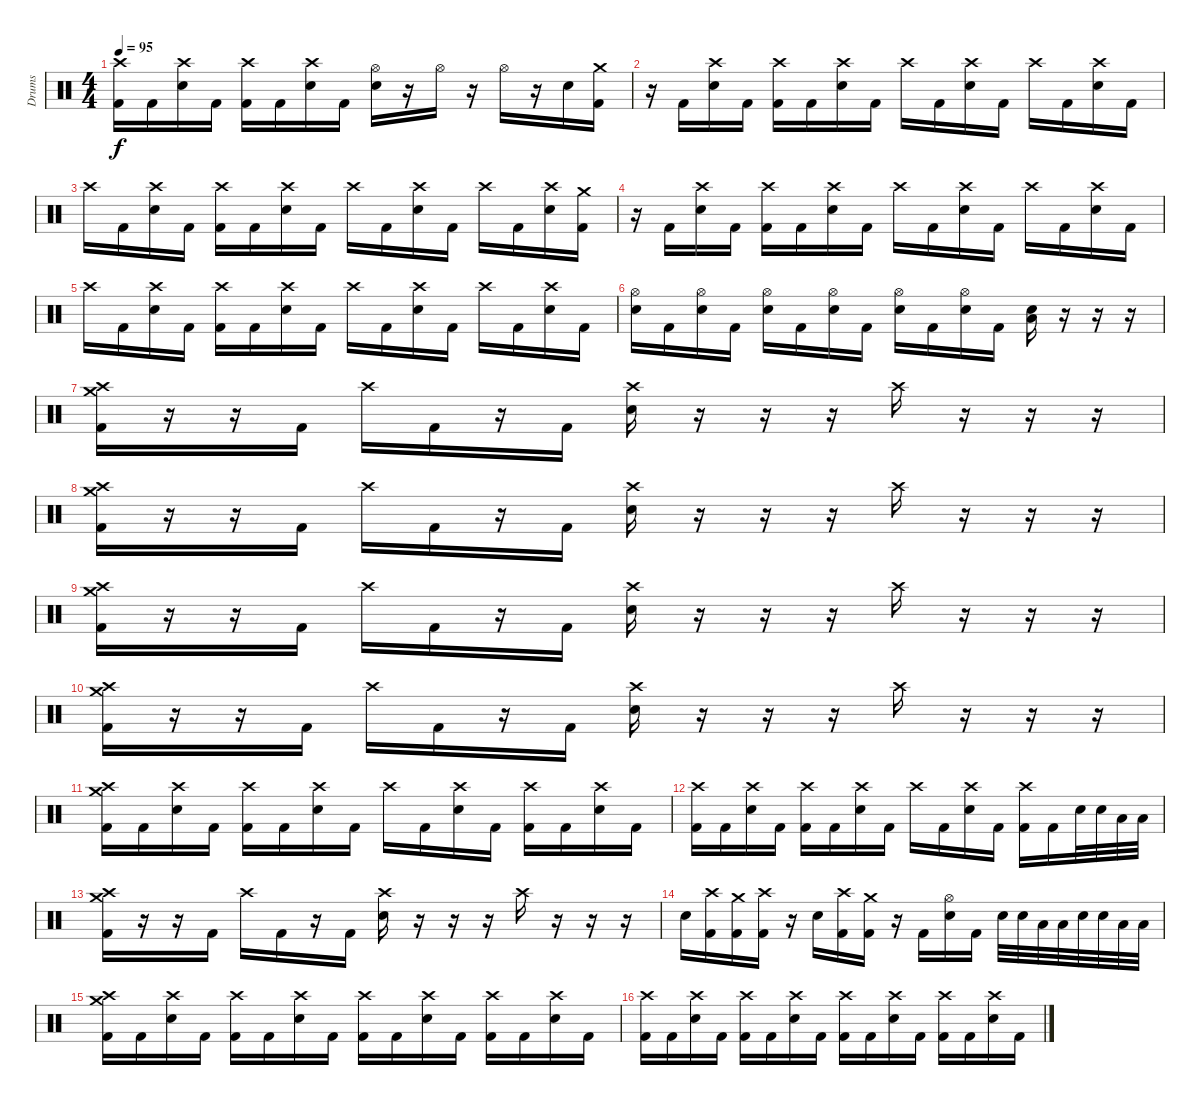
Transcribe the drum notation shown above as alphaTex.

\track ("Drums" "Drums") {instrument percussion}
\staff {score}
\articulation defaults
\ts (4 4)
\tempo 95
\clef neutral
\ks c
("Crash high (hit)" "Kick (hit) 2").16{dy f} "Kick (hit) 2".16 ("Crash high (hit)" "Electric Snare (hit)").16 "Kick (hit) 2".16 ("Crash high (hit)" "Kick (hit) 2").16 "Kick (hit) 2".16 ("Crash high (hit)" "Electric Snare (hit)").16 "Kick (hit) 2".16 ("Hi-Hat (open)" "Electric Snare (hit)").16 r.16 "Hi-Hat (open)".16 r.16 "Hi-Hat (open)".16 r.16 "Electric Snare (hit)".16 ("Crash medium (hit)" "Kick (hit) 2").16 |
r.16 "Kick (hit) 2".16 ("Crash high (hit)" "Electric Snare (hit)").16 "Kick (hit) 2".16 ("Crash high (hit)" "Kick (hit) 2").16 "Kick (hit) 2".16 ("Crash high (hit)" "Electric Snare (hit)").16 "Kick (hit) 2".16 "Crash high (hit)".16 "Kick (hit) 2".16 ("Crash high (hit)" "Electric Snare (hit)").16 "Kick (hit) 2".16 "Crash high (hit)".16 "Kick (hit) 2".16 ("Crash high (hit)" "Electric Snare (hit)").16 "Kick (hit) 2".16 |
"Crash high (hit)".16 "Kick (hit) 2".16 ("Crash high (hit)" "Electric Snare (hit)").16 "Kick (hit) 2".16 ("Crash high (hit)" "Kick (hit) 2").16 "Kick (hit) 2".16 ("Crash high (hit)" "Electric Snare (hit)").16 "Kick (hit) 2".16 "Crash high (hit)".16 "Kick (hit) 2".16 ("Crash high (hit)" "Electric Snare (hit)").16 "Kick (hit) 2".16 "Crash high (hit)".16 "Kick (hit) 2".16 ("Crash high (hit)" "Electric Snare (hit)").16 ("Crash medium (hit)" "Kick (hit) 2").16 |
r.16 "Kick (hit) 2".16 ("Crash high (hit)" "Electric Snare (hit)").16 "Kick (hit) 2".16 ("Crash high (hit)" "Kick (hit) 2").16 "Kick (hit) 2".16 ("Crash high (hit)" "Electric Snare (hit)").16 "Kick (hit) 2".16 "Crash high (hit)".16 "Kick (hit) 2".16 ("Crash high (hit)" "Electric Snare (hit)").16 "Kick (hit) 2".16 "Crash high (hit)".16 "Kick (hit) 2".16 ("Crash high (hit)" "Electric Snare (hit)").16 "Kick (hit) 2".16 |
"Crash high (hit)".16 "Kick (hit) 2".16 ("Crash high (hit)" "Electric Snare (hit)").16 "Kick (hit) 2".16 ("Crash high (hit)" "Kick (hit) 2").16 "Kick (hit) 2".16 ("Crash high (hit)" "Electric Snare (hit)").16 "Kick (hit) 2".16 "Crash high (hit)".16 "Kick (hit) 2".16 ("Crash high (hit)" "Electric Snare (hit)").16 "Kick (hit) 2".16 "Crash high (hit)".16 "Kick (hit) 2".16 ("Crash high (hit)" "Electric Snare (hit)").16 "Kick (hit) 2".16 |
("Hi-Hat (open)" "Electric Snare (hit)").16 "Kick (hit) 2".16 ("Hi-Hat (open)" "Electric Snare (hit)").16 "Kick (hit) 2".16 ("Hi-Hat (open)" "Electric Snare (hit)").16 "Kick (hit) 2".16 ("Hi-Hat (open)" "Electric Snare (hit)").16 "Kick (hit) 2".16 ("Hi-Hat (open)" "Electric Snare (hit)").16 "Kick (hit) 2".16 ("Hi-Hat (open)" "Electric Snare (hit)").16 "Kick (hit) 2".16 ("Low Floor Tom (hit)" "Electric Snare (hit)").16 r.16 r.16 r.16 |
("Crash medium (hit)" "Crash high (hit)" "Kick (hit) 2").16 r.16 r.16 "Kick (hit) 2".16 "Crash high (hit)".16 "Kick (hit) 2".16 r.16 "Kick (hit) 2".16 ("Crash high (hit)" "Electric Snare (hit)").16 r.16 r.16 r.16 "Crash high (hit)".16 r.16 r.16 r.16 |
("Crash medium (hit)" "Crash high (hit)" "Kick (hit) 2").16 r.16 r.16 "Kick (hit) 2".16 "Crash high (hit)".16 "Kick (hit) 2".16 r.16 "Kick (hit) 2".16 ("Crash high (hit)" "Electric Snare (hit)").16 r.16 r.16 r.16 "Crash high (hit)".16 r.16 r.16 r.16 |
("Crash medium (hit)" "Crash high (hit)" "Kick (hit) 2").16 r.16 r.16 "Kick (hit) 2".16 "Crash high (hit)".16 "Kick (hit) 2".16 r.16 "Kick (hit) 2".16 ("Crash high (hit)" "Electric Snare (hit)").16 r.16 r.16 r.16 "Crash high (hit)".16 r.16 r.16 r.16 |
("Crash medium (hit)" "Crash high (hit)" "Kick (hit) 2").16 r.16 r.16 "Kick (hit) 2".16 "Crash high (hit)".16 "Kick (hit) 2".16 r.16 "Kick (hit) 2".16 ("Crash high (hit)" "Electric Snare (hit)").16 r.16 r.16 r.16 "Crash high (hit)".16 r.16 r.16 r.16 |
("Crash medium (hit)" "Crash high (hit)" "Kick (hit) 2").16 "Kick (hit) 2".16 ("Crash high (hit)" "Electric Snare (hit)").16 "Kick (hit) 2".16 ("Crash high (hit)" "Kick (hit) 2").16 "Kick (hit) 2".16 ("Crash high (hit)" "Electric Snare (hit)").16 "Kick (hit) 2".16 "Crash high (hit)".16 "Kick (hit) 2".16 ("Crash high (hit)" "Electric Snare (hit)").16 "Kick (hit) 2".16 ("Crash high (hit)" "Kick (hit) 2").16 "Kick (hit) 2".16 ("Crash high (hit)" "Electric Snare (hit)").16 "Kick (hit) 2".16 |
("Crash high (hit)" "Kick (hit) 2").16 "Kick (hit) 2".16 ("Crash high (hit)" "Electric Snare (hit)").16 "Kick (hit) 2".16 ("Crash high (hit)" "Kick (hit) 2").16 "Kick (hit) 2".16 ("Crash high (hit)" "Electric Snare (hit)").16 "Kick (hit) 2".16 "Crash high (hit)".16 "Kick (hit) 2".16 ("Crash high (hit)" "Electric Snare (hit)").16 "Kick (hit) 2".16 ("Crash high (hit)" "Kick (hit) 2").16 "Kick (hit) 2".16 "Electric Snare (hit)".32 "Electric Snare (hit)".32 "Low Tom (hit)".32 "Low Tom (hit)".32 |
("Crash medium (hit)" "Crash high (hit)" "Kick (hit) 2").16 r.16 r.16 "Kick (hit) 2".16 "Crash high (hit)".16 "Kick (hit) 2".16 r.16 "Kick (hit) 2".16 ("Crash high (hit)" "Electric Snare (hit)").16 r.16 r.16 r.16 "Crash high (hit)".16 r.16 r.16 r.16 |
"Electric Snare (hit)".16 ("Crash high (hit)" "Kick (hit) 2").16 ("Crash medium (hit)" "Kick (hit) 2").16 ("Crash high (hit)" "Kick (hit) 2").16 r.16 "Electric Snare (hit)".16 ("Crash high (hit)" "Kick (hit) 2").16 ("Crash medium (hit)" "Kick (hit) 2").16 r.16 "Kick (hit) 2".16 ("Hi-Hat (open)" "Electric Snare (hit)").16 "Kick (hit) 2".16 "Electric Snare (hit)".32 "Electric Snare (hit)".32 "Low Tom (hit)".32 "Low Tom (hit)".32 "Electric Snare (hit)".32 "Electric Snare (hit)".32 "Low Tom (hit)".32 "Low Tom (hit)".32 |
("Crash medium (hit)" "Crash high (hit)" "Kick (hit) 2").16 "Kick (hit) 2".16 ("Crash high (hit)" "Electric Snare (hit)").16 "Kick (hit) 2".16 ("Crash high (hit)" "Kick (hit) 2").16 "Kick (hit) 2".16 ("Crash high (hit)" "Electric Snare (hit)").16 "Kick (hit) 2".16 ("Crash high (hit)" "Kick (hit) 2").16 "Kick (hit) 2".16 ("Crash high (hit)" "Electric Snare (hit)").16 "Kick (hit) 2".16 ("Crash high (hit)" "Kick (hit) 2").16 "Kick (hit) 2".16 ("Crash high (hit)" "Electric Snare (hit)").16 "Kick (hit) 2".16 |
("Crash high (hit)" "Kick (hit) 2").16 "Kick (hit) 2".16 ("Crash high (hit)" "Electric Snare (hit)").16 "Kick (hit) 2".16 ("Crash high (hit)" "Kick (hit) 2").16 "Kick (hit) 2".16 ("Crash high (hit)" "Electric Snare (hit)").16 "Kick (hit) 2".16 ("Crash high (hit)" "Kick (hit) 2").16 "Kick (hit) 2".16 ("Crash high (hit)" "Electric Snare (hit)").16 "Kick (hit) 2".16 ("Crash high (hit)" "Kick (hit) 2").16 "Kick (hit) 2".16 ("Crash high (hit)" "Electric Snare (hit)").16 "Kick (hit) 2".16
